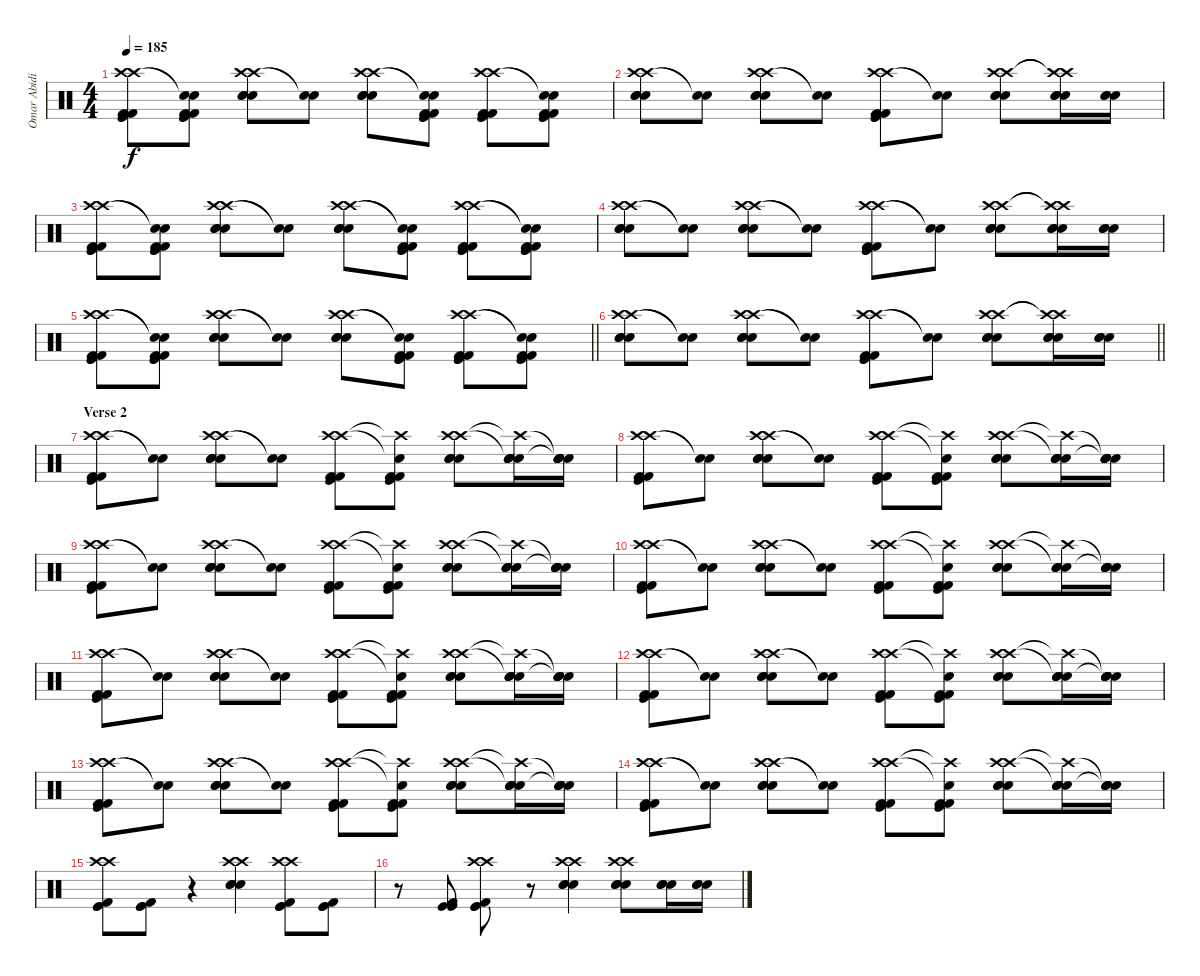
\track ("Omar Abidi" "Omar Abidi") {instrument percussion}
\staff {score}
\articulation defaults
\ts (4 4)
\tempo 185
\clef neutral
\ks c
("Crash high (hit)" "Crash high (hit)" "Kick (hit) 2" "Kick (hit) 2" "Kick (hit)" "Kick (hit)").8{dy f volume 10} ("Snare (hit)"{t} "Snare (hit)"{t} "Kick (hit) 2" "Kick (hit) 2" "Kick (hit)" "Kick (hit)").8 ("Crash high (hit)" "Crash high (hit)" "Snare (hit) 2" "Electric Snare (hit)" "Electric Snare (hit)").8 ("Snare (hit)"{t} "Snare (hit)"{t}).8 ("Crash high (hit)" "Crash high (hit)" "Snare (hit) 2" "Electric Snare (hit)" "Electric Snare (hit)").8 ("Snare (hit)"{t} "Snare (hit)"{t} "Kick (hit) 2" "Kick (hit) 2" "Kick (hit)" "Kick (hit)").8 ("Crash high (hit)" "Crash high (hit)" "Kick (hit) 2" "Kick (hit) 2" "Kick (hit)" "Kick (hit)").8 ("Snare (hit)"{t} "Snare (hit)"{t} "Kick (hit) 2" "Kick (hit) 2" "Kick (hit)" "Kick (hit)").8 |
("Crash high (hit)" "Crash high (hit)" "Snare (hit) 2" "Electric Snare (hit)" "Electric Snare (hit)").8 ("Snare (hit)"{t} "Snare (hit)"{t}).8 ("Crash high (hit)" "Crash high (hit)" "Snare (hit) 2" "Electric Snare (hit)" "Electric Snare (hit)").8 ("Snare (hit)"{t} "Snare (hit)"{t}).8 ("Crash high (hit)" "Crash high (hit)" "Kick (hit) 2" "Kick (hit) 2" "Kick (hit)" "Kick (hit)").8 ("Snare (hit)"{t} "Snare (hit)"{t}).8 ("Crash high (hit)" "Crash high (hit)" "Snare (hit) 2" "Electric Snare (hit)" "Electric Snare (hit)").8 ("Crash high (hit)"{t} "Crash high (hit)"{t} "Snare (hit) 2" "Electric Snare (hit)" "Electric Snare (hit)").16 ("Snare (hit) 2" "Electric Snare (hit)" "Electric Snare (hit)").16 |
("Crash high (hit)" "Crash high (hit)" "Kick (hit) 2" "Kick (hit) 2" "Kick (hit)" "Kick (hit)").8{volume 10} ("Snare (hit)"{t} "Snare (hit)"{t} "Kick (hit) 2" "Kick (hit) 2" "Kick (hit)" "Kick (hit)").8 ("Crash high (hit)" "Crash high (hit)" "Snare (hit) 2" "Electric Snare (hit)" "Electric Snare (hit)").8 ("Snare (hit)"{t} "Snare (hit)"{t}).8 ("Crash high (hit)" "Crash high (hit)" "Snare (hit) 2" "Electric Snare (hit)" "Electric Snare (hit)").8 ("Snare (hit)"{t} "Snare (hit)"{t} "Kick (hit) 2" "Kick (hit) 2" "Kick (hit)" "Kick (hit)").8 ("Crash high (hit)" "Crash high (hit)" "Kick (hit) 2" "Kick (hit) 2" "Kick (hit)" "Kick (hit)").8 ("Snare (hit)"{t} "Snare (hit)"{t} "Kick (hit) 2" "Kick (hit) 2" "Kick (hit)" "Kick (hit)").8 |
("Crash high (hit)" "Crash high (hit)" "Snare (hit) 2" "Electric Snare (hit)" "Electric Snare (hit)").8 ("Snare (hit)"{t} "Snare (hit)"{t}).8 ("Crash high (hit)" "Crash high (hit)" "Snare (hit) 2" "Electric Snare (hit)" "Electric Snare (hit)").8 ("Snare (hit)"{t} "Snare (hit)"{t}).8 ("Crash high (hit)" "Crash high (hit)" "Kick (hit) 2" "Kick (hit) 2" "Kick (hit)" "Kick (hit)").8 ("Snare (hit)"{t} "Snare (hit)"{t}).8 ("Crash high (hit)" "Crash high (hit)" "Snare (hit) 2" "Electric Snare (hit)" "Electric Snare (hit)").8 ("Crash high (hit)"{t} "Crash high (hit)"{t} "Snare (hit) 2" "Electric Snare (hit)" "Electric Snare (hit)").16 ("Snare (hit) 2" "Electric Snare (hit)" "Electric Snare (hit)").16 |
\barLineRight lightlight
("Crash high (hit)" "Crash high (hit)" "Kick (hit) 2" "Kick (hit) 2" "Kick (hit)" "Kick (hit)").8{volume 10} ("Snare (hit)"{t} "Snare (hit)"{t} "Kick (hit) 2" "Kick (hit) 2" "Kick (hit)" "Kick (hit)").8 ("Crash high (hit)" "Crash high (hit)" "Snare (hit) 2" "Electric Snare (hit)" "Electric Snare (hit)").8 ("Snare (hit)"{t} "Snare (hit)"{t}).8 ("Crash high (hit)" "Crash high (hit)" "Snare (hit) 2" "Electric Snare (hit)" "Electric Snare (hit)").8 ("Snare (hit)"{t} "Snare (hit)"{t} "Kick (hit) 2" "Kick (hit) 2" "Kick (hit)" "Kick (hit)").8 ("Crash high (hit)" "Crash high (hit)" "Kick (hit) 2" "Kick (hit) 2" "Kick (hit)" "Kick (hit)").8 ("Snare (hit)"{t} "Snare (hit)"{t} "Kick (hit) 2" "Kick (hit) 2" "Kick (hit)" "Kick (hit)").8 |
\barLineRight lightlight
("Crash high (hit)" "Crash high (hit)" "Snare (hit) 2" "Electric Snare (hit)" "Electric Snare (hit)").8 ("Snare (hit)"{t} "Snare (hit)"{t}).8 ("Crash high (hit)" "Crash high (hit)" "Snare (hit) 2" "Electric Snare (hit)" "Electric Snare (hit)").8 ("Snare (hit)"{t} "Snare (hit)"{t}).8 ("Crash high (hit)" "Crash high (hit)" "Kick (hit) 2" "Kick (hit) 2" "Kick (hit)" "Kick (hit)").8 ("Snare (hit)"{t} "Snare (hit)"{t}).8 ("Crash high (hit)" "Crash high (hit)" "Snare (hit) 2" "Electric Snare (hit)" "Electric Snare (hit)").8 ("Crash high (hit)"{t} "Crash high (hit)"{t} "Snare (hit) 2" "Electric Snare (hit)" "Electric Snare (hit)").16 ("Snare (hit) 2" "Electric Snare (hit)" "Electric Snare (hit)").16 |
\section ("" "Verse 2")
("Crash high (hit)" "Crash high (hit)" "Kick (hit) 2" "Kick (hit) 2" "Kick (hit)").8 ("Snare (hit)"{t} "Snare (hit)"{t}).8 ("Crash high (hit)" "Crash high (hit)" "Snare (hit) 2" "Electric Snare (hit)" "Snare (hit) 2").8 ("Snare (hit)"{t} "Snare (hit)"{t}).8 ("Crash high (hit)" "Crash high (hit)" "Kick (hit) 2" "Kick (hit) 2" "Kick (hit)").8 ("Snare (hit)"{t} "Crash high (hit)"{t} "Kick (hit) 2" "Kick (hit) 2" "Kick (hit)").8 ("Crash high (hit)" "Crash high (hit)" "Snare (hit) 2" "Electric Snare (hit)" "Snare (hit) 2").8 ("Crash high (hit)"{t} "Snare (hit)"{t} "Snare (hit) 2" "Snare (hit) 2" "Electric Snare (hit)").16 ("Snare (hit)"{t} "Snare (hit)"{t} "Snare (hit) 2" "Snare (hit) 2" "Electric Snare (hit)").16 |
("Crash high (hit)" "Crash high (hit)" "Kick (hit) 2" "Kick (hit) 2" "Kick (hit)").8 ("Snare (hit)"{t} "Snare (hit)"{t}).8 ("Crash high (hit)" "Crash high (hit)" "Snare (hit) 2" "Electric Snare (hit)" "Snare (hit) 2").8 ("Snare (hit)"{t} "Snare (hit)"{t}).8 ("Crash high (hit)" "Crash high (hit)" "Kick (hit) 2" "Kick (hit) 2" "Kick (hit)").8 ("Snare (hit)"{t} "Crash high (hit)"{t} "Kick (hit) 2" "Kick (hit) 2" "Kick (hit)").8 ("Crash high (hit)" "Crash high (hit)" "Snare (hit) 2" "Electric Snare (hit)" "Snare (hit) 2").8 ("Crash high (hit)"{t} "Snare (hit)"{t} "Snare (hit) 2" "Snare (hit) 2" "Electric Snare (hit)").16 ("Snare (hit)"{t} "Snare (hit)"{t} "Snare (hit) 2" "Snare (hit) 2" "Electric Snare (hit)").16 |
("Crash high (hit)" "Crash high (hit)" "Kick (hit) 2" "Kick (hit) 2" "Kick (hit)").8 ("Snare (hit)"{t} "Snare (hit)"{t}).8 ("Crash high (hit)" "Crash high (hit)" "Snare (hit) 2" "Electric Snare (hit)" "Snare (hit) 2").8 ("Snare (hit)"{t} "Snare (hit)"{t}).8 ("Crash high (hit)" "Crash high (hit)" "Kick (hit) 2" "Kick (hit) 2" "Kick (hit)").8 ("Snare (hit)"{t} "Crash high (hit)"{t} "Kick (hit) 2" "Kick (hit) 2" "Kick (hit)").8 ("Crash high (hit)" "Crash high (hit)" "Snare (hit) 2" "Electric Snare (hit)" "Snare (hit) 2").8 ("Crash high (hit)"{t} "Snare (hit)"{t} "Snare (hit) 2" "Snare (hit) 2" "Electric Snare (hit)").16 ("Snare (hit)"{t} "Snare (hit)"{t} "Snare (hit) 2" "Snare (hit) 2" "Electric Snare (hit)").16 |
("Crash high (hit)" "Crash high (hit)" "Kick (hit) 2" "Kick (hit) 2" "Kick (hit)").8 ("Snare (hit)"{t} "Snare (hit)"{t}).8 ("Crash high (hit)" "Crash high (hit)" "Snare (hit) 2" "Electric Snare (hit)" "Snare (hit) 2").8 ("Snare (hit)"{t} "Snare (hit)"{t}).8 ("Crash high (hit)" "Crash high (hit)" "Kick (hit) 2" "Kick (hit) 2" "Kick (hit)").8 ("Snare (hit)"{t} "Crash high (hit)"{t} "Kick (hit) 2" "Kick (hit) 2" "Kick (hit)").8 ("Crash high (hit)" "Crash high (hit)" "Snare (hit) 2" "Electric Snare (hit)" "Snare (hit) 2").8 ("Crash high (hit)"{t} "Snare (hit)"{t} "Snare (hit) 2" "Snare (hit) 2" "Electric Snare (hit)").16 ("Snare (hit)"{t} "Snare (hit)"{t} "Snare (hit) 2" "Snare (hit) 2" "Electric Snare (hit)").16 |
("Crash high (hit)" "Crash high (hit)" "Kick (hit) 2" "Kick (hit) 2" "Kick (hit)").8 ("Snare (hit)"{t} "Snare (hit)"{t}).8 ("Crash high (hit)" "Crash high (hit)" "Snare (hit) 2" "Electric Snare (hit)" "Snare (hit) 2").8 ("Snare (hit)"{t} "Snare (hit)"{t}).8 ("Crash high (hit)" "Crash high (hit)" "Kick (hit) 2" "Kick (hit) 2" "Kick (hit)").8 ("Snare (hit)"{t} "Crash high (hit)"{t} "Kick (hit) 2" "Kick (hit) 2" "Kick (hit)").8 ("Crash high (hit)" "Crash high (hit)" "Snare (hit) 2" "Electric Snare (hit)" "Snare (hit) 2").8 ("Crash high (hit)"{t} "Snare (hit)"{t} "Snare (hit) 2" "Snare (hit) 2" "Electric Snare (hit)").16 ("Snare (hit)"{t} "Snare (hit)"{t} "Snare (hit) 2" "Snare (hit) 2" "Electric Snare (hit)").16 |
("Crash high (hit)" "Crash high (hit)" "Kick (hit) 2" "Kick (hit) 2" "Kick (hit)").8 ("Snare (hit)"{t} "Snare (hit)"{t}).8 ("Crash high (hit)" "Crash high (hit)" "Snare (hit) 2" "Electric Snare (hit)" "Snare (hit) 2").8 ("Snare (hit)"{t} "Snare (hit)"{t}).8 ("Crash high (hit)" "Crash high (hit)" "Kick (hit) 2" "Kick (hit) 2" "Kick (hit)").8 ("Snare (hit)"{t} "Crash high (hit)"{t} "Kick (hit) 2" "Kick (hit) 2" "Kick (hit)").8 ("Crash high (hit)" "Crash high (hit)" "Snare (hit) 2" "Electric Snare (hit)" "Snare (hit) 2").8 ("Crash high (hit)"{t} "Snare (hit)"{t} "Snare (hit) 2" "Snare (hit) 2" "Electric Snare (hit)").16 ("Snare (hit)"{t} "Snare (hit)"{t} "Snare (hit) 2" "Snare (hit) 2" "Electric Snare (hit)").16 |
("Crash high (hit)" "Crash high (hit)" "Kick (hit) 2" "Kick (hit) 2" "Kick (hit)").8 ("Snare (hit)"{t} "Snare (hit)"{t}).8 ("Crash high (hit)" "Crash high (hit)" "Snare (hit) 2" "Electric Snare (hit)" "Snare (hit) 2").8 ("Snare (hit)"{t} "Snare (hit)"{t}).8 ("Crash high (hit)" "Crash high (hit)" "Kick (hit) 2" "Kick (hit) 2" "Kick (hit)").8 ("Snare (hit)"{t} "Crash high (hit)"{t} "Kick (hit) 2" "Kick (hit) 2" "Kick (hit)").8 ("Crash high (hit)" "Crash high (hit)" "Snare (hit) 2" "Electric Snare (hit)" "Snare (hit) 2").8 ("Crash high (hit)"{t} "Snare (hit)"{t} "Snare (hit) 2" "Snare (hit) 2" "Electric Snare (hit)").16 ("Snare (hit)"{t} "Snare (hit)"{t} "Snare (hit) 2" "Snare (hit) 2" "Electric Snare (hit)").16 |
("Crash high (hit)" "Crash high (hit)" "Kick (hit) 2" "Kick (hit) 2" "Kick (hit)").8 ("Snare (hit)"{t} "Snare (hit)"{t}).8 ("Crash high (hit)" "Crash high (hit)" "Snare (hit) 2" "Electric Snare (hit)" "Snare (hit) 2").8 ("Snare (hit)"{t} "Snare (hit)"{t}).8 ("Crash high (hit)" "Crash high (hit)" "Kick (hit) 2" "Kick (hit) 2" "Kick (hit)").8 ("Snare (hit)"{t} "Crash high (hit)"{t} "Kick (hit) 2" "Kick (hit) 2" "Kick (hit)").8 ("Crash high (hit)" "Crash high (hit)" "Snare (hit) 2" "Electric Snare (hit)" "Snare (hit) 2").8 ("Crash high (hit)"{t} "Snare (hit)"{t} "Snare (hit) 2" "Snare (hit) 2" "Electric Snare (hit)").16 ("Snare (hit)"{t} "Snare (hit)"{t} "Snare (hit) 2" "Snare (hit) 2" "Electric Snare (hit)").16 |
("Crash high (hit)" "Crash high (hit)" "Kick (hit) 2" "Kick (hit)" "Kick (hit)").8{volume 16} ("Kick (hit) 2" "Kick (hit)" "Kick (hit)").8 r.4 ("Crash high (hit)" "Crash high (hit)" "Snare (hit) 2" "Snare (hit) 2" "Electric Snare (hit)").4 ("Crash high (hit)" "Crash high (hit)" "Kick (hit) 2" "Kick (hit)" "Kick (hit)").8 ("Kick (hit) 2" "Kick (hit)" "Kick (hit)").8 |
r.8 ("Kick (hit) 2" "Kick (hit)" "Kick (hit)").8 ("Crash high (hit)" "Crash high (hit)" "Kick (hit) 2" "Kick (hit)" "Kick (hit)").8 r.8 ("Crash high (hit)" "Crash high (hit)" "Snare (hit) 2" "Snare (hit) 2" "Electric Snare (hit)").4 ("Crash high (hit)" "Crash high (hit)" "Snare (hit) 2" "Snare (hit) 2" "Electric Snare (hit)").8 ("Snare (hit) 2" "Electric Snare (hit)" "Snare (hit) 2").16 ("Snare (hit) 2" "Electric Snare (hit)" "Snare (hit) 2").16
